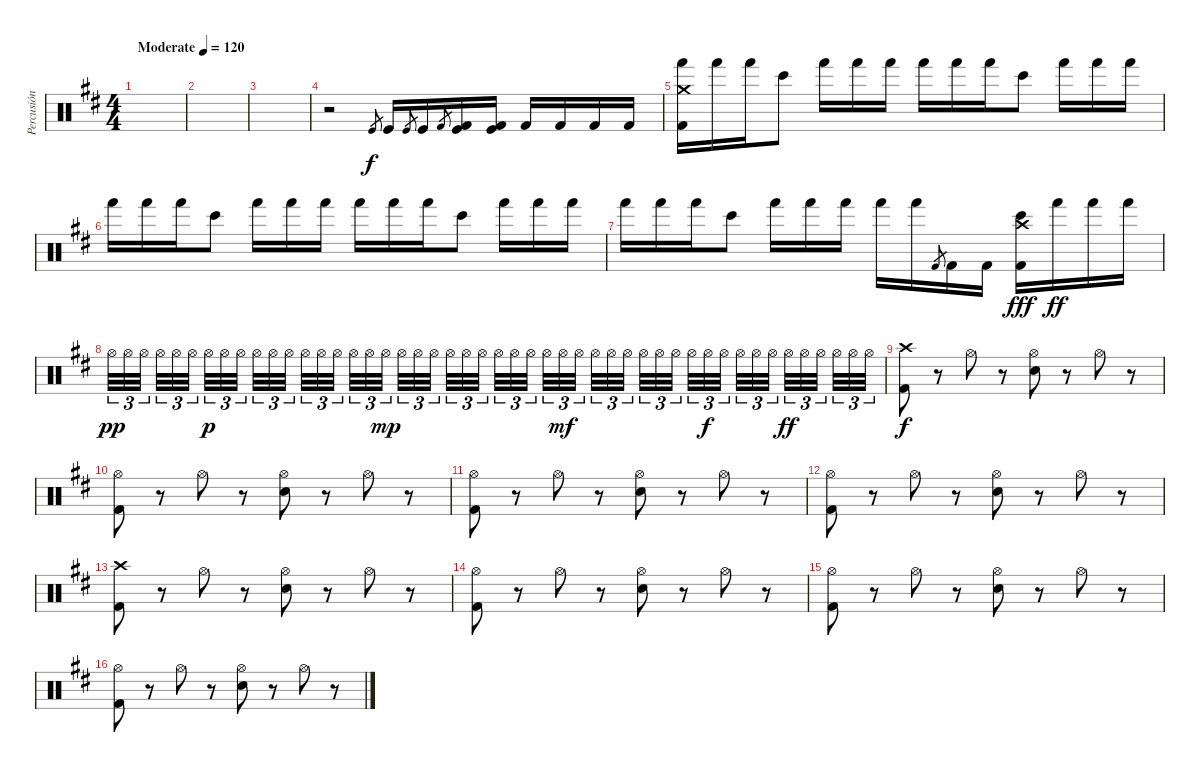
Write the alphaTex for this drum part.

\track ("Percusión" "Percusión") {instrument percussion}
\staff {score}
\articulation defaults
\ts (4 4)
\tempo (120 "Moderate")
\clef neutral
\ks d
|
|
|
r.2 "Kick (hit)".8{gr} "Kick (hit)".16 "Kick (hit)".8{gr} "Kick (hit)".16 "Kick (hit) 2".8{gr} ("Kick (hit)" "Kick (hit) 2").16 ("Kick (hit)" "Kick (hit) 2").16 "Kick (hit) 2".16 "Kick (hit) 2".16 "Kick (hit) 2".16 "Kick (hit) 2".16 |
("Crash medium (hit)" "Hand (hit)" "Kick (hit) 2").16 "Hand (hit)".16 "Hand (hit)".16 "Bongo High (hit)".8 "Hand (hit)".16 "Hand (hit)".16 "Hand (hit)".16 "Hand (hit)".16 "Hand (hit)".16 "Hand (hit)".16 "Bongo High (hit)".8 "Hand (hit)".16 "Hand (hit)".16 "Hand (hit)".16 |
"Hand (hit)".16 "Hand (hit)".16 "Hand (hit)".16 "Bongo High (hit)".8 "Hand (hit)".16 "Hand (hit)".16 "Hand (hit)".16 "Hand (hit)".16 "Hand (hit)".16 "Hand (hit)".16 "Bongo High (hit)".8 "Hand (hit)".16 "Hand (hit)".16 "Hand (hit)".16 |
"Hand (hit)".16 "Hand (hit)".16 "Hand (hit)".16 "Bongo High (hit)".8 "Hand (hit)".16 "Hand (hit)".16 "Hand (hit)".16 "Hand (hit)".16 "Hand (hit)".16 "Kick (hit) 2".8{gr} "Kick (hit) 2".16 "Kick (hit) 2".16 ("Crash high (hit)" "Bongo High (hit)" "Kick (hit) 2").16{dy fff} "Hand (hit)".16{dy ff} "Hand (hit)".16 "Hand (hit)".16 |
"Hi-Hat (open)".32{tu (3 2) dy pp} "Hi-Hat (open)".32{tu (3 2)} "Hi-Hat (open)".32{tu (3 2) beam splitsecondary} "Hi-Hat (open)".32{tu (3 2)} "Hi-Hat (open)".32{tu (3 2)} "Hi-Hat (open)".32{tu (3 2) beam splitsecondary} "Hi-Hat (open)".32{tu (3 2) dy p} "Hi-Hat (open)".32{tu (3 2)} "Hi-Hat (open)".32{tu (3 2) beam splitsecondary} "Hi-Hat (open)".32{tu (3 2)} "Hi-Hat (open)".32{tu (3 2)} "Hi-Hat (open)".32{tu (3 2)} "Hi-Hat (open)".32{tu (3 2)} "Hi-Hat (open)".32{tu (3 2)} "Hi-Hat (open)".32{tu (3 2) beam splitsecondary} "Hi-Hat (open)".32{tu (3 2)} "Hi-Hat (open)".32{tu (3 2)} "Hi-Hat (open)".32{tu (3 2) dy mp beam splitsecondary} "Hi-Hat (open)".32{tu (3 2)} "Hi-Hat (open)".32{tu (3 2)} "Hi-Hat (open)".32{tu (3 2) beam splitsecondary} "Hi-Hat (open)".32{tu (3 2)} "Hi-Hat (open)".32{tu (3 2)} "Hi-Hat (open)".32{tu (3 2)} "Hi-Hat (open)".32{tu (3 2)} "Hi-Hat (open)".32{tu (3 2)} "Hi-Hat (open)".32{tu (3 2) beam splitsecondary} "Hi-Hat (open)".32{tu (3 2)} "Hi-Hat (open)".32{tu (3 2) dy mf} "Hi-Hat (open)".32{tu (3 2) beam splitsecondary} "Hi-Hat (open)".32{tu (3 2)} "Hi-Hat (open)".32{tu (3 2)} "Hi-Hat (open)".32{tu (3 2) beam splitsecondary} "Hi-Hat (open)".32{tu (3 2)} "Hi-Hat (open)".32{tu (3 2)} "Hi-Hat (open)".32{tu (3 2)} "Hi-Hat (open)".32{tu (3 2)} "Hi-Hat (open)".32{tu (3 2) dy f} "Hi-Hat (open)".32{tu (3 2) beam splitsecondary} "Hi-Hat (open)".32{tu (3 2)} "Hi-Hat (open)".32{tu (3 2)} "Hi-Hat (open)".32{tu (3 2) beam splitsecondary} "Hi-Hat (open)".32{tu (3 2) dy ff} "Hi-Hat (open)".32{tu (3 2)} "Hi-Hat (open)".32{tu (3 2) beam splitsecondary} "Hi-Hat (open)".32{tu (3 2)} "Hi-Hat (open)".32{tu (3 2)} "Hi-Hat (open)".32{tu (3 2)} |
("Crash high (hit)" "Kick (hit) 2").8{dy f} r.8 "Hi-Hat (open)".8 r.8 ("Hi-Hat (open)" "Electric Snare (hit)").8 r.8 "Hi-Hat (open)".8 r.8 |
("Hi-Hat (open)" "Kick (hit) 2").8 r.8 "Hi-Hat (open)".8 r.8 ("Hi-Hat (open)" "Electric Snare (hit)").8 r.8 "Hi-Hat (open)".8 r.8 |
("Hi-Hat (open)" "Kick (hit) 2").8 r.8 "Hi-Hat (open)".8 r.8 ("Hi-Hat (open)" "Electric Snare (hit)").8 r.8 "Hi-Hat (open)".8 r.8 |
("Hi-Hat (open)" "Kick (hit) 2").8 r.8 "Hi-Hat (open)".8 r.8 ("Hi-Hat (open)" "Electric Snare (hit)").8 r.8 "Hi-Hat (open)".8 r.8 |
("Crash high (hit)" "Kick (hit) 2").8 r.8 "Hi-Hat (open)".8 r.8 ("Hi-Hat (open)" "Electric Snare (hit)").8 r.8 "Hi-Hat (open)".8 r.8 |
("Hi-Hat (open)" "Kick (hit) 2").8 r.8 "Hi-Hat (open)".8 r.8 ("Hi-Hat (open)" "Electric Snare (hit)").8 r.8 "Hi-Hat (open)".8 r.8 |
("Hi-Hat (open)" "Kick (hit) 2").8 r.8 "Hi-Hat (open)".8 r.8 ("Hi-Hat (open)" "Electric Snare (hit)").8 r.8 "Hi-Hat (open)".8 r.8 |
("Hi-Hat (open)" "Kick (hit) 2").8 r.8 "Hi-Hat (open)".8 r.8 ("Hi-Hat (open)" "Electric Snare (hit)").8 r.8 "Hi-Hat (open)".8 r.8
